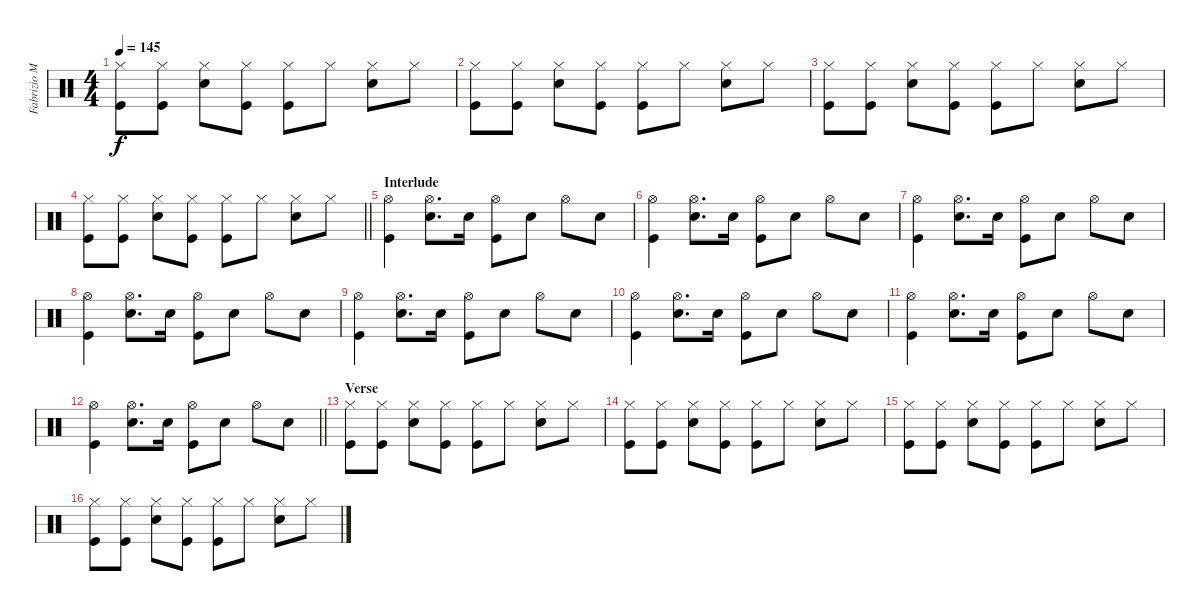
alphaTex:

\track ("Fabrizio Moretti" "Fabrizio M") {instrument percussion}
\staff {score}
\articulation defaults
\ts (4 4)
\tempo 145
\clef neutral
\ks c
("Hi-Hat (closed)" "Kick (hit)").8{dy f} ("Hi-Hat (closed)" "Kick (hit)").8 ("Hi-Hat (closed)" "Snare (hit) 2").8 ("Hi-Hat (closed)" "Kick (hit)").8 ("Hi-Hat (closed)" "Kick (hit)").8 "Hi-Hat (closed)".8 ("Hi-Hat (closed)" "Snare (hit) 2").8 "Hi-Hat (closed)".8 |
("Hi-Hat (closed)" "Kick (hit)").8 ("Hi-Hat (closed)" "Kick (hit)").8 ("Hi-Hat (closed)" "Snare (hit) 2").8 ("Hi-Hat (closed)" "Kick (hit)").8 ("Hi-Hat (closed)" "Kick (hit)").8 "Hi-Hat (closed)".8 ("Hi-Hat (closed)" "Snare (hit) 2").8 "Hi-Hat (closed)".8 |
("Hi-Hat (closed)" "Kick (hit)").8 ("Hi-Hat (closed)" "Kick (hit)").8 ("Hi-Hat (closed)" "Snare (hit) 2").8 ("Hi-Hat (closed)" "Kick (hit)").8 ("Hi-Hat (closed)" "Kick (hit)").8 "Hi-Hat (closed)".8 ("Hi-Hat (closed)" "Snare (hit) 2").8 "Hi-Hat (closed)".8 |
\barLineRight lightlight
("Hi-Hat (closed)" "Kick (hit)").8 ("Hi-Hat (closed)" "Kick (hit)").8 ("Hi-Hat (closed)" "Snare (hit) 2").8 ("Hi-Hat (closed)" "Kick (hit)").8 ("Hi-Hat (closed)" "Kick (hit)").8 "Hi-Hat (closed)".8 ("Hi-Hat (closed)" "Snare (hit) 2").8 "Hi-Hat (closed)".8 |
\section ("" "Interlude")
("Hi-Hat (open)" "Kick (hit)").4 ("Hi-Hat (open)" "Snare (hit) 2").8{d} "Snare (hit) 2".16 ("Hi-Hat (open)" "Kick (hit)").8 "Snare (hit) 2".8 "Hi-Hat (open)".8 "Snare (hit) 2".8 |
("Hi-Hat (open)" "Kick (hit)").4 ("Hi-Hat (open)" "Snare (hit) 2").8{d} "Snare (hit) 2".16 ("Hi-Hat (open)" "Kick (hit)").8 "Snare (hit) 2".8 "Hi-Hat (open)".8 "Snare (hit) 2".8 |
("Hi-Hat (open)" "Kick (hit)").4 ("Hi-Hat (open)" "Snare (hit) 2").8{d} "Snare (hit) 2".16 ("Hi-Hat (open)" "Kick (hit)").8 "Snare (hit) 2".8 "Hi-Hat (open)".8 "Snare (hit) 2".8 |
("Hi-Hat (open)" "Kick (hit)").4 ("Hi-Hat (open)" "Snare (hit) 2").8{d} "Snare (hit) 2".16 ("Hi-Hat (open)" "Kick (hit)").8 "Snare (hit) 2".8 "Hi-Hat (open)".8 "Snare (hit) 2".8 |
("Hi-Hat (open)" "Kick (hit)").4 ("Hi-Hat (open)" "Snare (hit) 2").8{d} "Snare (hit) 2".16 ("Hi-Hat (open)" "Kick (hit)").8 "Snare (hit) 2".8 "Hi-Hat (open)".8 "Snare (hit) 2".8 |
("Hi-Hat (open)" "Kick (hit)").4 ("Hi-Hat (open)" "Snare (hit) 2").8{d} "Snare (hit) 2".16 ("Hi-Hat (open)" "Kick (hit)").8 "Snare (hit) 2".8 "Hi-Hat (open)".8 "Snare (hit) 2".8 |
("Hi-Hat (open)" "Kick (hit)").4 ("Hi-Hat (open)" "Snare (hit) 2").8{d} "Snare (hit) 2".16 ("Hi-Hat (open)" "Kick (hit)").8 "Snare (hit) 2".8 "Hi-Hat (open)".8 "Snare (hit) 2".8 |
\barLineRight lightlight
("Hi-Hat (open)" "Kick (hit)").4 ("Hi-Hat (open)" "Snare (hit) 2").8{d} "Snare (hit) 2".16 ("Hi-Hat (open)" "Kick (hit)").8 "Snare (hit) 2".8 "Hi-Hat (open)".8 "Snare (hit) 2".8 |
\section ("" "Verse")
("Hi-Hat (closed)" "Kick (hit)").8 ("Hi-Hat (closed)" "Kick (hit)").8 ("Hi-Hat (closed)" "Snare (hit) 2").8 ("Hi-Hat (closed)" "Kick (hit)").8 ("Hi-Hat (closed)" "Kick (hit)").8 "Hi-Hat (closed)".8 ("Hi-Hat (closed)" "Snare (hit) 2").8 "Hi-Hat (closed)".8 |
("Hi-Hat (closed)" "Kick (hit)").8 ("Hi-Hat (closed)" "Kick (hit)").8 ("Hi-Hat (closed)" "Snare (hit) 2").8 ("Hi-Hat (closed)" "Kick (hit)").8 ("Hi-Hat (closed)" "Kick (hit)").8 "Hi-Hat (closed)".8 ("Hi-Hat (closed)" "Snare (hit) 2").8 "Hi-Hat (closed)".8 |
("Hi-Hat (closed)" "Kick (hit)").8 ("Hi-Hat (closed)" "Kick (hit)").8 ("Hi-Hat (closed)" "Snare (hit) 2").8 ("Hi-Hat (closed)" "Kick (hit)").8 ("Hi-Hat (closed)" "Kick (hit)").8 "Hi-Hat (closed)".8 ("Hi-Hat (closed)" "Snare (hit) 2").8 "Hi-Hat (closed)".8 |
("Hi-Hat (closed)" "Kick (hit)").8 ("Hi-Hat (closed)" "Kick (hit)").8 ("Hi-Hat (closed)" "Snare (hit) 2").8 ("Hi-Hat (closed)" "Kick (hit)").8 ("Hi-Hat (closed)" "Kick (hit)").8 "Hi-Hat (closed)".8 ("Hi-Hat (closed)" "Snare (hit) 2").8 "Hi-Hat (closed)".8
